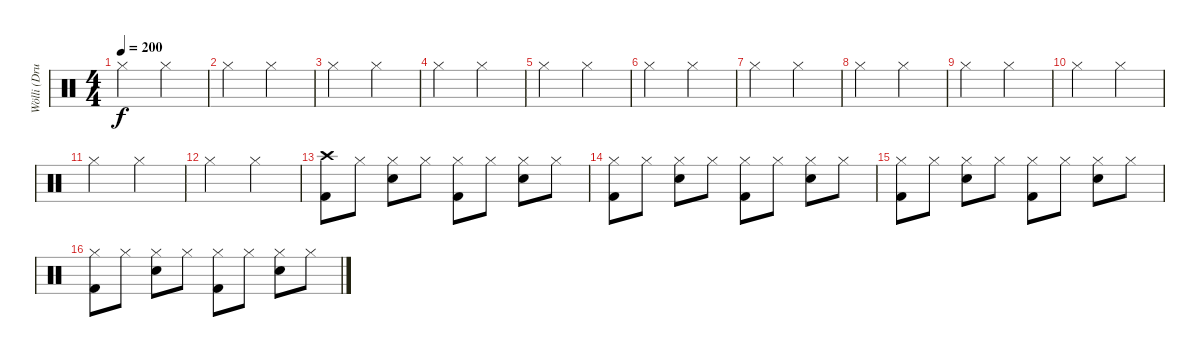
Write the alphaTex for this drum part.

\track ("Wölli (Drums)" "Wölli (Dru") {instrument percussion}
\staff {score}
\articulation defaults
\ts (4 4)
\tempo 200
\clef neutral
\ks c "Hi-Hat (closed)".2{dy f} "Hi-Hat (closed)".2
|
"Hi-Hat (closed)".2 "Hi-Hat (closed)".2 |
"Hi-Hat (closed)".2 "Hi-Hat (closed)".2 |
"Hi-Hat (closed)".2 "Hi-Hat (closed)".2 |
"Hi-Hat (closed)".2 "Hi-Hat (closed)".2 |
"Hi-Hat (closed)".2 "Hi-Hat (closed)".2 |
"Hi-Hat (closed)".2 "Hi-Hat (closed)".2 |
"Hi-Hat (closed)".2 "Hi-Hat (closed)".2 |
"Hi-Hat (closed)".2 "Hi-Hat (closed)".2 |
"Hi-Hat (closed)".2 "Hi-Hat (closed)".2 |
"Hi-Hat (closed)".2 "Hi-Hat (closed)".2 |
"Hi-Hat (closed)".2 "Hi-Hat (closed)".2 |
("Crash high (hit)" "Kick (hit) 2").8 "Hi-Hat (closed)".8 ("Hi-Hat (closed)" "Snare (hit) 2").8 "Hi-Hat (closed)".8 ("Hi-Hat (closed)" "Kick (hit) 2").8 "Hi-Hat (closed)".8 ("Hi-Hat (closed)" "Snare (hit) 2").8 "Hi-Hat (closed)".8 |
("Hi-Hat (closed)" "Kick (hit) 2").8 "Hi-Hat (closed)".8 ("Hi-Hat (closed)" "Snare (hit) 2").8 "Hi-Hat (closed)".8 ("Hi-Hat (closed)" "Kick (hit) 2").8 "Hi-Hat (closed)".8 ("Hi-Hat (closed)" "Snare (hit) 2").8 "Hi-Hat (closed)".8 |
("Hi-Hat (closed)" "Kick (hit) 2").8 "Hi-Hat (closed)".8 ("Hi-Hat (closed)" "Snare (hit) 2").8 "Hi-Hat (closed)".8 ("Hi-Hat (closed)" "Kick (hit) 2").8 "Hi-Hat (closed)".8 ("Hi-Hat (closed)" "Snare (hit) 2").8 "Hi-Hat (closed)".8 |
("Hi-Hat (closed)" "Kick (hit) 2").8 "Hi-Hat (closed)".8 ("Hi-Hat (closed)" "Snare (hit) 2").8 "Hi-Hat (closed)".8 ("Hi-Hat (closed)" "Kick (hit) 2").8 "Hi-Hat (closed)".8 ("Hi-Hat (closed)" "Snare (hit) 2").8 "Hi-Hat (closed)".8
